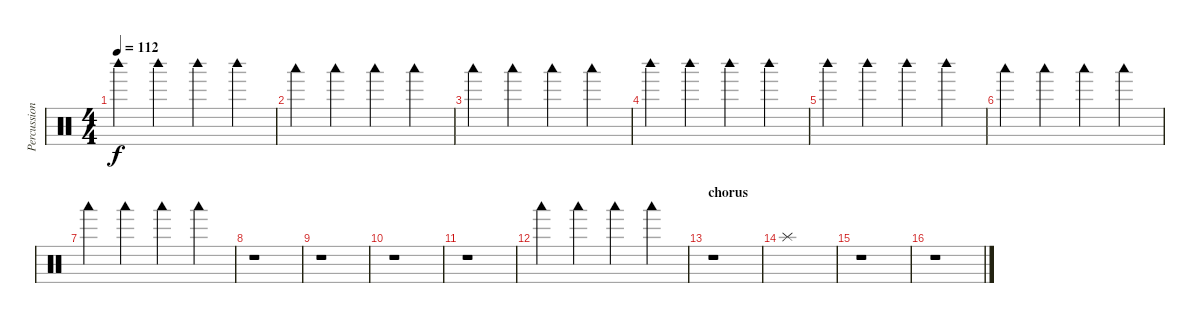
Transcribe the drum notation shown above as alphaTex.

\track ("Percussions (Mason)" "Percussion") {instrument percussion}
\staff {score}
\articulation defaults
\ts (4 4)
\tempo 112
\clef neutral
\ks c "Woodblock high (hit)".4{dy f} "Woodblock high (hit)".4 "Woodblock high (hit)".4 "Woodblock high (hit)".4
|
"Woodblock low (hit)".4 "Woodblock low (hit)".4 "Woodblock low (hit)".4 "Woodblock low (hit)".4 |
"Woodblock low (hit)".4 "Woodblock low (hit)".4 "Woodblock low (hit)".4 "Woodblock low (hit)".4 |
"Woodblock high (hit)".4 "Woodblock high (hit)".4 "Woodblock high (hit)".4 "Woodblock high (hit)".4 |
"Woodblock high (hit)".4 "Woodblock high (hit)".4 "Woodblock high (hit)".4 "Woodblock high (hit)".4 |
"Woodblock low (hit)".4 "Woodblock low (hit)".4 "Woodblock low (hit)".4 "Woodblock low (hit)".4 |
"Woodblock low (hit)".4 "Woodblock low (hit)".4 "Woodblock low (hit)".4 "Woodblock low (hit)".4 |
r.1 |
r.1 |
r.1 |
r.1 |
"Woodblock low (hit)".4 "Woodblock low (hit)".4 "Woodblock low (hit)".4 "Woodblock low (hit)".4 |
\section ("" "chorus")
r.1 |
"Splash (hit)".1 |
r.1 |
r.1
